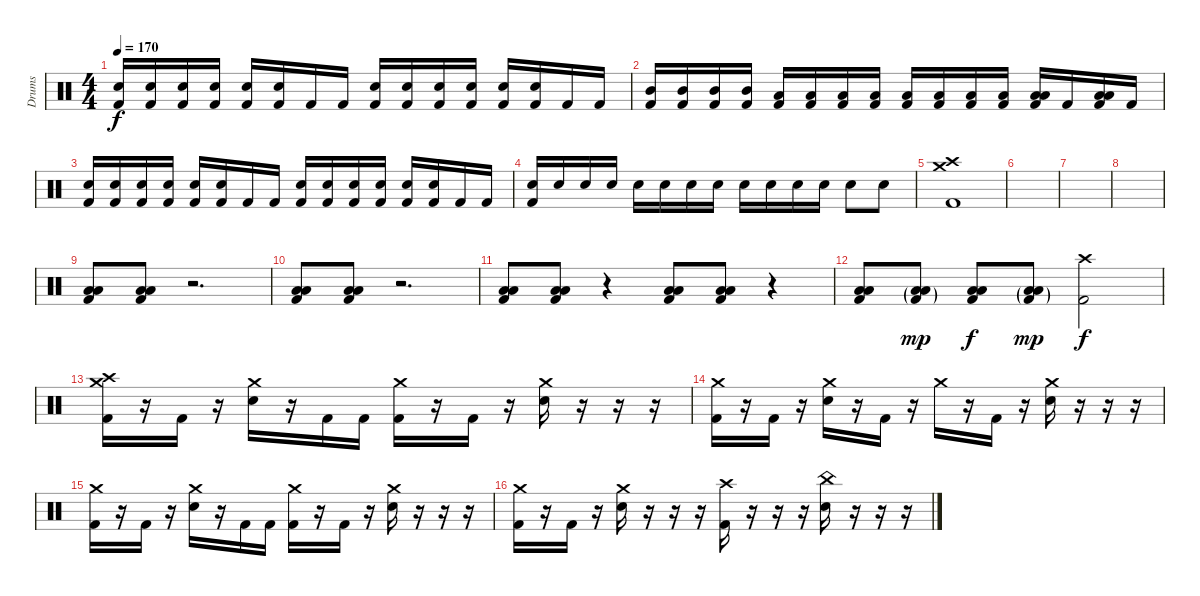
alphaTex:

\track ("Drums" "Drums") {instrument percussion}
\staff {score}
\articulation defaults
\ts (4 4)
\tempo 170
\clef neutral
\ks c
("Electric Snare (hit)" "Kick (hit) 2").16{dy f} ("Electric Snare (hit)" "Kick (hit) 2").16 ("Electric Snare (hit)" "Kick (hit) 2").16 ("Electric Snare (hit)" "Kick (hit) 2").16 ("Electric Snare (hit)" "Kick (hit) 2").16 ("Electric Snare (hit)" "Kick (hit) 2").16 "Kick (hit) 2".16 "Kick (hit) 2".16 ("Electric Snare (hit)" "Kick (hit) 2").16 ("Electric Snare (hit)" "Kick (hit) 2").16 ("Electric Snare (hit)" "Kick (hit) 2").16 ("Electric Snare (hit)" "Kick (hit) 2").16 ("Electric Snare (hit)" "Kick (hit) 2").16 ("Electric Snare (hit)" "Kick (hit) 2").16 "Kick (hit) 2".16 "Kick (hit) 2".16 |
("Mid Tom (hit)" "Kick (hit) 2").16 ("Mid Tom (hit)" "Kick (hit) 2").16 ("Mid Tom (hit)" "Kick (hit) 2").16 ("Mid Tom (hit)" "Kick (hit) 2").16 ("Low Tom (hit)" "Kick (hit) 2").16 ("Low Tom (hit)" "Kick (hit) 2").16 ("Low Tom (hit)" "Kick (hit) 2").16 ("Low Tom (hit)" "Kick (hit) 2").16 ("Low Floor Tom (hit)" "Kick (hit) 2").16 ("Low Floor Tom (hit)" "Kick (hit) 2").16 ("Low Floor Tom (hit)" "Kick (hit) 2").16 ("Low Floor Tom (hit)" "Kick (hit) 2").16 ("Low Tom (hit)" "Low Floor Tom (hit)" "Kick (hit) 2").16 "Kick (hit) 2".16 ("Low Tom (hit)" "Low Floor Tom (hit)" "Kick (hit) 2").16 "Kick (hit) 2".16 |
("Electric Snare (hit)" "Kick (hit) 2").16 ("Electric Snare (hit)" "Kick (hit) 2").16 ("Electric Snare (hit)" "Kick (hit) 2").16 ("Electric Snare (hit)" "Kick (hit) 2").16 ("Electric Snare (hit)" "Kick (hit) 2").16 ("Electric Snare (hit)" "Kick (hit) 2").16 "Kick (hit) 2".16 "Kick (hit) 2".16 ("Electric Snare (hit)" "Kick (hit) 2").16 ("Electric Snare (hit)" "Kick (hit) 2").16 ("Electric Snare (hit)" "Kick (hit) 2").16 ("Electric Snare (hit)" "Kick (hit) 2").16 ("Electric Snare (hit)" "Kick (hit) 2").16 ("Electric Snare (hit)" "Kick (hit) 2").16 "Kick (hit) 2".16 "Kick (hit) 2".16 |
("Electric Snare (hit)" "Kick (hit) 2").16 "Electric Snare (hit)".16 "Electric Snare (hit)".16 "Electric Snare (hit)".16 "Electric Snare (hit)".16 "Electric Snare (hit)".16 "Electric Snare (hit)".16 "Electric Snare (hit)".16 "Electric Snare (hit)".16 "Electric Snare (hit)".16 "Electric Snare (hit)".16 "Electric Snare (hit)".16 "Electric Snare (hit)".8 "Electric Snare (hit)".8 |
\section ("" "")
("Crash medium (hit)" "Crash high (hit)" "Kick (hit) 2").1 |
|
|
|
("Low Tom (hit)" "Low Floor Tom (hit)" "Kick (hit) 2").8 ("Low Tom (hit)" "Low Floor Tom (hit)" "Kick (hit) 2").8 r.2{d} |
("Low Tom (hit)" "Low Floor Tom (hit)" "Kick (hit) 2").8 ("Low Tom (hit)" "Low Floor Tom (hit)" "Kick (hit) 2").8 r.2{d} |
("Low Tom (hit)" "Low Floor Tom (hit)" "Kick (hit) 2").8 ("Low Tom (hit)" "Low Floor Tom (hit)" "Kick (hit) 2").8 r.4 ("Low Tom (hit)" "Low Floor Tom (hit)" "Kick (hit) 2").8 ("Low Tom (hit)" "Low Floor Tom (hit)" "Kick (hit) 2").8 r.4 |
("Low Tom (hit)" "Low Floor Tom (hit)" "Kick (hit) 2").8 ("Low Tom (hit)"{g} "Low Floor Tom (hit)"{g} "Kick (hit) 2"{g}).8{dy mp} ("Low Tom (hit)" "Low Floor Tom (hit)" "Kick (hit) 2").8{dy f} ("Low Tom (hit)"{g} "Low Floor Tom (hit)"{g} "Kick (hit) 2"{g}).8{dy mp} ("Crash high (hit)" "Kick (hit) 2").2{dy f} |
("Crash medium (hit)" "Crash high (hit)" "Kick (hit) 2").16 r.16 "Kick (hit) 2".16 r.16 ("Crash medium (hit)" "Electric Snare (hit)").16 r.16 "Kick (hit) 2".16 "Kick (hit) 2".16 ("Crash medium (hit)" "Kick (hit) 2").16 r.16 "Kick (hit) 2".16 r.16 ("Crash medium (hit)" "Electric Snare (hit)").16 r.16 r.16 r.16 |
("Crash medium (hit)" "Kick (hit) 2").16 r.16 "Kick (hit) 2".16 r.16 ("Crash medium (hit)" "Electric Snare (hit)").16 r.16 "Kick (hit) 2".16 r.16 "Crash medium (hit)".16 r.16 "Kick (hit) 2".16 r.16 ("Crash medium (hit)" "Electric Snare (hit)").16 r.16 r.16 r.16 |
("Crash medium (hit)" "Kick (hit) 2").16 r.16 "Kick (hit) 2".16 r.16 ("Crash medium (hit)" "Electric Snare (hit)").16 r.16 "Kick (hit) 2".16 "Kick (hit) 2".16 ("Crash medium (hit)" "Kick (hit) 2").16 r.16 "Kick (hit) 2".16 r.16 ("Crash medium (hit)" "Electric Snare (hit)").16 r.16 r.16 r.16 |
("Crash medium (hit)" "Kick (hit) 2").16 r.16 "Kick (hit) 2".16 r.16 ("Crash medium (hit)" "Electric Snare (hit)").16 r.16 r.16 r.16 ("Crash high (hit)" "Kick (hit) 2").16 r.16 r.16 r.16 ("China (hit)" "Electric Snare (hit)").16 r.16 r.16 r.16
